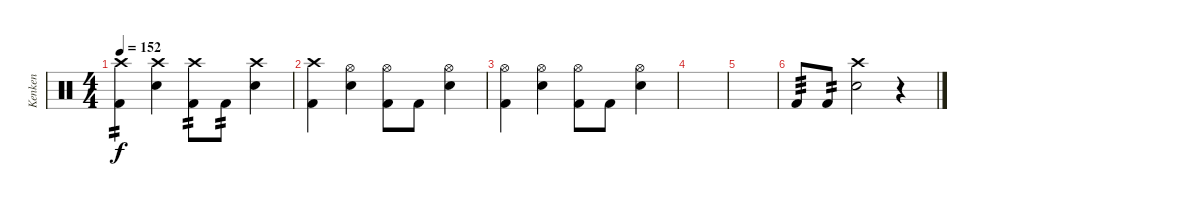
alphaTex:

\track ("Kenken" "Kenken") {instrument percussion}
\staff {score}
\articulation defaults
\ts (4 4)
\tempo 152
\clef neutral
\ks c
("Crash high (hit)" "Kick (hit) 2").4{tp 2 dy f} ("Crash high (hit)" "Electric Snare (hit)").4 ("Crash high (hit)" "Kick (hit) 2").8{tp 2} "Kick (hit) 2".8{tp 2} ("Crash high (hit)" "Electric Snare (hit)").4 |
("Crash high (hit)" "Kick (hit) 2").4 ("Hi-Hat (open)" "Electric Snare (hit)").4 ("Hi-Hat (open)" "Kick (hit) 2").8 "Kick (hit) 2".8 ("Hi-Hat (open)" "Electric Snare (hit)").4 |
("Hi-Hat (open)" "Kick (hit) 2").4 ("Hi-Hat (open)" "Electric Snare (hit)").4 ("Hi-Hat (open)" "Kick (hit) 2").8 "Kick (hit) 2".8 ("Hi-Hat (open)" "Electric Snare (hit)").4 |
|
|
"Kick (hit) 2".8{tp 3} "Kick (hit) 2".8{tp 2} ("Crash high (hit)" "Electric Snare (hit)").2 r.4
